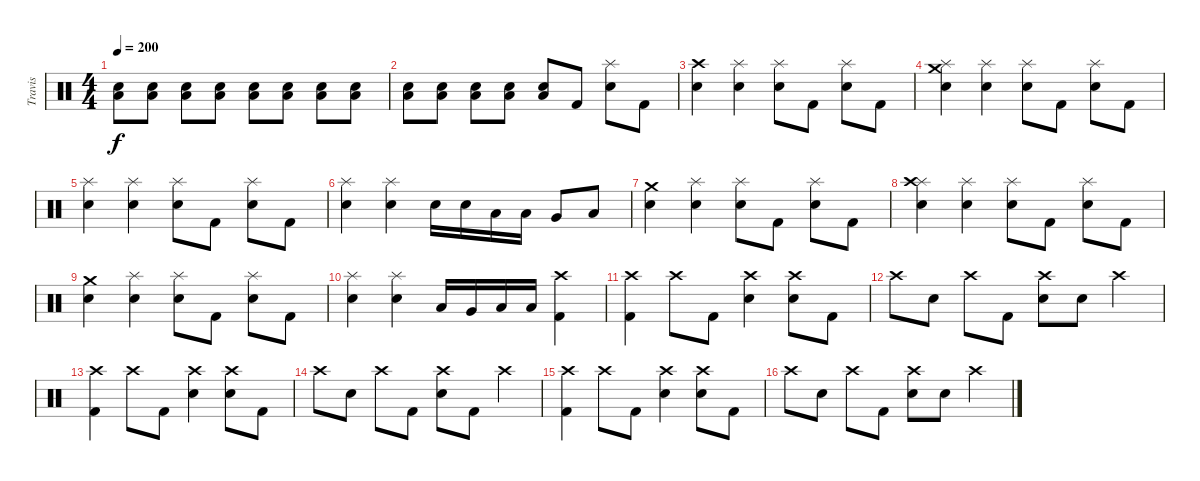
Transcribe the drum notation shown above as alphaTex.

\track ("Travis" "Travis") {instrument percussion}
\staff {score}
\articulation defaults
\ts (4 4)
\tempo 200
\clef neutral
\ks c
("Snare (hit) 2" "Low Floor Tom (hit)").8{dy f volume 5} ("Snare (hit) 2" "Low Floor Tom (hit)").8{volume 10} ("Snare (hit) 2" "Low Floor Tom (hit)").8 ("Snare (hit) 2" "Low Floor Tom (hit)").8 ("Snare (hit) 2" "Low Floor Tom (hit)").8 ("Snare (hit) 2" "Low Floor Tom (hit)").8 ("Snare (hit) 2" "Low Floor Tom (hit)").8 ("Snare (hit) 2" "Low Floor Tom (hit)").8 |
("Snare (hit) 2" "Low Floor Tom (hit)").8 ("Snare (hit) 2" "Low Floor Tom (hit)").8 ("Snare (hit) 2" "Low Floor Tom (hit)").8 ("Snare (hit) 2" "Low Floor Tom (hit)").8 ("Snare (hit) 2" "Low Floor Tom (hit)").8 "Kick (hit) 2".8 ("Snare (hit) 2" "Splash (hit)").8 "Kick (hit) 2".8 |
("Snare (hit) 2" "Crash high (hit)").4 ("Snare (hit) 2" "Splash (hit)").4 ("Snare (hit) 2" "Splash (hit)").8 "Kick (hit) 2".8 ("Snare (hit) 2" "Splash (hit)").8 "Kick (hit) 2".8 |
("Snare (hit) 2" "Splash (hit)" "Crash medium (hit)").4 ("Snare (hit) 2" "Splash (hit)").4 ("Snare (hit) 2" "Splash (hit)").8 "Kick (hit) 2".8 ("Snare (hit) 2" "Splash (hit)").8 "Kick (hit) 2".8 |
("Snare (hit) 2" "Splash (hit)").4 ("Snare (hit) 2" "Splash (hit)").4 ("Snare (hit) 2" "Splash (hit)").8 "Kick (hit) 2".8 ("Snare (hit) 2" "Splash (hit)").8 "Kick (hit) 2".8 |
("Snare (hit) 2" "Splash (hit)").4 ("Snare (hit) 2" "Splash (hit)").4 "Snare (hit) 2".16 "Snare (hit) 2".16 "Low Tom (hit)".16 "Low Tom (hit)".16 "Very Low Tom (hit)".8 "Low Floor Tom (hit)".8 |
("Snare (hit) 2" "Crash medium (hit)").4 ("Snare (hit) 2" "Splash (hit)").4 ("Snare (hit) 2" "Splash (hit)").8 "Kick (hit) 2".8 ("Snare (hit) 2" "Splash (hit)").8 "Kick (hit) 2".8 |
("Snare (hit) 2" "Splash (hit)" "Crash high (hit)").4 ("Snare (hit) 2" "Splash (hit)").4 ("Snare (hit) 2" "Splash (hit)").8 "Kick (hit) 2".8 ("Snare (hit) 2" "Splash (hit)").8 "Kick (hit) 2".8 |
("Snare (hit) 2" "Crash medium (hit)").4 ("Snare (hit) 2" "Splash (hit)").4 ("Snare (hit) 2" "Splash (hit)").8 "Kick (hit) 2".8 ("Snare (hit) 2" "Splash (hit)").8 "Kick (hit) 2".8 |
("Snare (hit) 2" "Splash (hit)").4 ("Snare (hit) 2" "Splash (hit)").4 "Low Tom (hit)".16 "Very Low Tom (hit)".16 "Low Floor Tom (hit)".16 "Low Floor Tom (hit)".16 ("Kick (hit) 2" "Crash high (hit)").4 |
("Kick (hit) 2" "Crash high (hit)").4 "Crash high (hit)".8 "Kick (hit) 2".8 ("Snare (hit) 2" "Crash high (hit)").4 ("Snare (hit) 2" "Crash high (hit)").8 "Kick (hit) 2".8 |
"Crash high (hit)".8 "Snare (hit) 2".8 "Crash high (hit)".8 "Kick (hit) 2".8 ("Snare (hit) 2" "Crash high (hit)").8 "Snare (hit) 2".8 "Crash high (hit)".4 |
("Kick (hit) 2" "Crash high (hit)").4 "Crash high (hit)".8 "Kick (hit) 2".8 ("Snare (hit) 2" "Crash high (hit)").4 ("Snare (hit) 2" "Crash high (hit)").8 "Kick (hit) 2".8 |
"Crash high (hit)".8 "Snare (hit) 2".8 "Crash high (hit)".8 "Kick (hit) 2".8 ("Snare (hit) 2" "Crash high (hit)").8 "Kick (hit) 2".8 "Crash high (hit)".4 |
("Kick (hit) 2" "Crash high (hit)").4 "Crash high (hit)".8 "Kick (hit) 2".8 ("Snare (hit) 2" "Crash high (hit)").4 ("Snare (hit) 2" "Crash high (hit)").8 "Kick (hit) 2".8 |
"Crash high (hit)".8 "Snare (hit) 2".8 "Crash high (hit)".8 "Kick (hit) 2".8 ("Snare (hit) 2" "Crash high (hit)").8 "Snare (hit) 2".8 "Crash high (hit)".4
